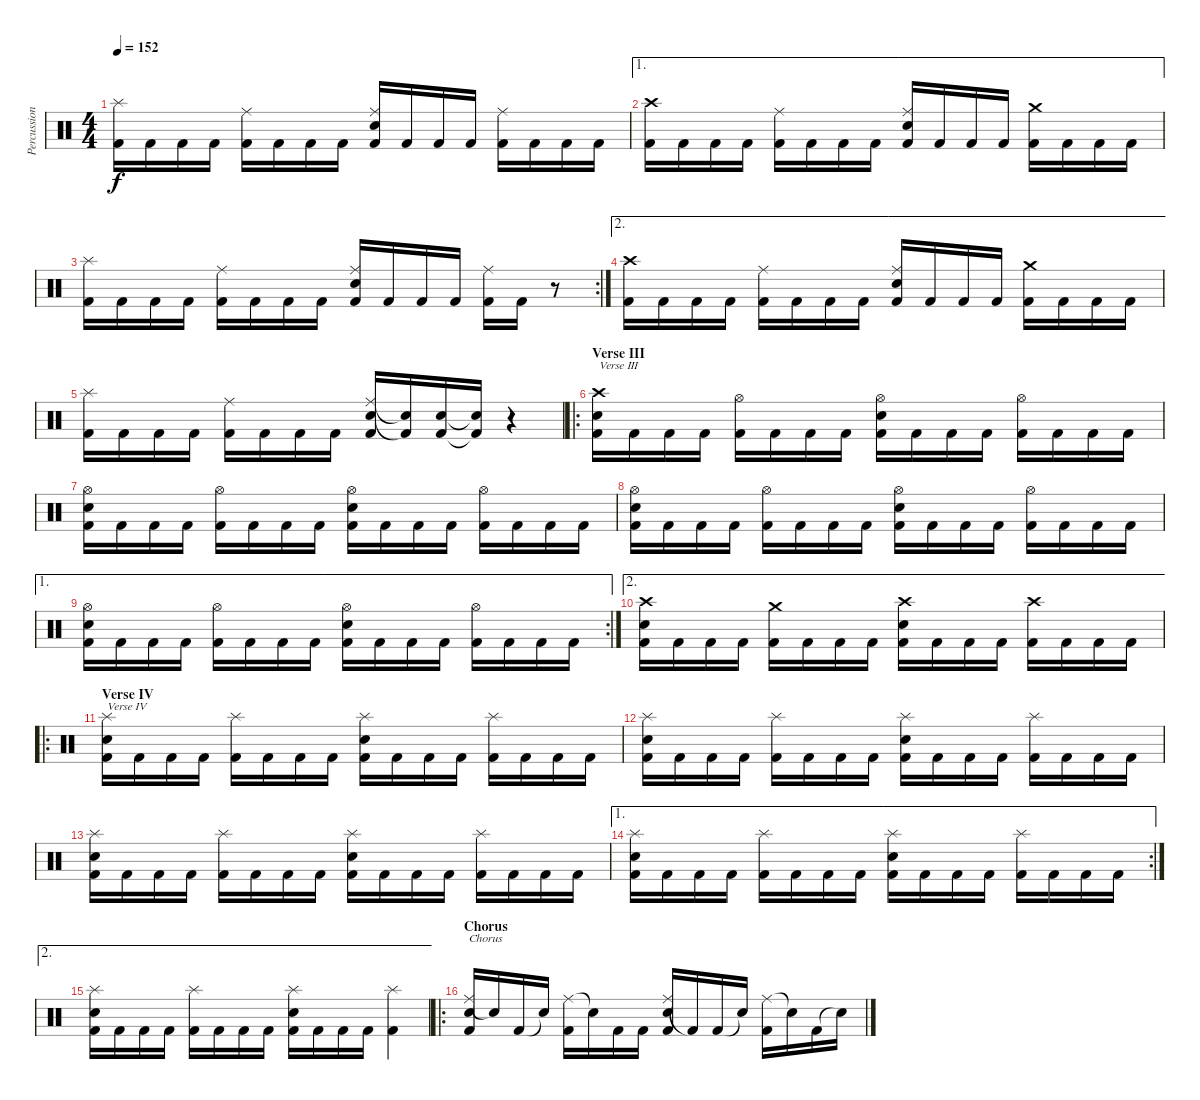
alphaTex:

\track ("Percussion" "Percussion") {instrument percussion}
\staff {score}
\articulation defaults
\ts (4 4)
\tempo 152
\clef neutral
\ks c
("Splash (hit)" "Kick (hit) 2").16{dy f} "Kick (hit) 2".16 "Kick (hit) 2".16 "Kick (hit) 2".16 ("Ride (middle)" "Kick (hit) 2").16 "Kick (hit) 2".16 "Kick (hit) 2".16 "Kick (hit) 2".16 ("Ride (middle)" "Electric Snare (hit)" "Kick (hit) 2").16 "Kick (hit) 2".16 "Kick (hit) 2".16 "Kick (hit) 2".16 ("Ride (middle)" "Kick (hit) 2").16 "Kick (hit) 2".16 "Kick (hit) 2".16 "Kick (hit) 2".16 |
\ae 1
("Crash high (hit)" "Kick (hit) 2").16 "Kick (hit) 2".16 "Kick (hit) 2".16 "Kick (hit) 2".16 ("Ride (middle)" "Kick (hit) 2").16 "Kick (hit) 2".16 "Kick (hit) 2".16 "Kick (hit) 2".16 ("Ride (middle)" "Electric Snare (hit)" "Kick (hit) 2").16 "Kick (hit) 2".16 "Kick (hit) 2".16 "Kick (hit) 2".16 ("Crash medium (hit)" "Kick (hit) 2").16 "Kick (hit) 2".16 "Kick (hit) 2".16 "Kick (hit) 2".16 |
\rc 2
("Splash (hit)" "Kick (hit) 2").16 "Kick (hit) 2".16 "Kick (hit) 2".16 "Kick (hit) 2".16 ("Ride (middle)" "Kick (hit) 2").16 "Kick (hit) 2".16 "Kick (hit) 2".16 "Kick (hit) 2".16 ("Ride (middle)" "Electric Snare (hit)" "Kick (hit) 2").16 "Kick (hit) 2".16 "Kick (hit) 2".16 "Kick (hit) 2".16 ("Ride (middle)" "Kick (hit) 2").16 "Kick (hit) 2".16 r.8 |
\ae 2
("Crash high (hit)" "Kick (hit) 2").16 "Kick (hit) 2".16 "Kick (hit) 2".16 "Kick (hit) 2".16 ("Ride (middle)" "Kick (hit) 2").16 "Kick (hit) 2".16 "Kick (hit) 2".16 "Kick (hit) 2".16 ("Ride (middle)" "Electric Snare (hit)" "Kick (hit) 2").16 "Kick (hit) 2".16 "Kick (hit) 2".16 "Kick (hit) 2".16 ("Crash medium (hit)" "Kick (hit) 2").16 "Kick (hit) 2".16 "Kick (hit) 2".16 "Kick (hit) 2".16 |
("Splash (hit)" "Kick (hit) 2").16 "Kick (hit) 2".16 "Kick (hit) 2".16 "Kick (hit) 2".16 ("Ride (middle)" "Kick (hit) 2").16 "Kick (hit) 2".16 "Kick (hit) 2".16 "Kick (hit) 2".16 ("Ride (middle)" "Electric Snare (hit)" "Kick (hit) 2").16 ("Electric Snare (hit)"{t} "Kick (hit) 2"{t}).16 ("Electric Snare (hit)" "Kick (hit) 2").16 ("Electric Snare (hit)"{t} "Kick (hit) 2"{t}).16 r.4 |
\ro
\section ("" "Verse III")
("Crash high (hit)" "Electric Snare (hit)" "Kick (hit) 2").16{txt "Verse III"} "Kick (hit) 2".16 "Kick (hit) 2".16 "Kick (hit) 2".16 ("Hi-Hat (open)" "Kick (hit) 2").16 "Kick (hit) 2".16 "Kick (hit) 2".16 "Kick (hit) 2".16 ("Hi-Hat (open)" "Electric Snare (hit)" "Kick (hit) 2").16 "Kick (hit) 2".16 "Kick (hit) 2".16 "Kick (hit) 2".16 ("Hi-Hat (open)" "Kick (hit) 2").16 "Kick (hit) 2".16 "Kick (hit) 2".16 "Kick (hit) 2".16 |
("Hi-Hat (open)" "Electric Snare (hit)" "Kick (hit) 2").16 "Kick (hit) 2".16 "Kick (hit) 2".16 "Kick (hit) 2".16 ("Hi-Hat (open)" "Kick (hit) 2").16 "Kick (hit) 2".16 "Kick (hit) 2".16 "Kick (hit) 2".16 ("Hi-Hat (open)" "Electric Snare (hit)" "Kick (hit) 2").16 "Kick (hit) 2".16 "Kick (hit) 2".16 "Kick (hit) 2".16 ("Hi-Hat (open)" "Kick (hit) 2").16 "Kick (hit) 2".16 "Kick (hit) 2".16 "Kick (hit) 2".16 |
("Hi-Hat (open)" "Electric Snare (hit)" "Kick (hit) 2").16 "Kick (hit) 2".16 "Kick (hit) 2".16 "Kick (hit) 2".16 ("Hi-Hat (open)" "Kick (hit) 2").16 "Kick (hit) 2".16 "Kick (hit) 2".16 "Kick (hit) 2".16 ("Hi-Hat (open)" "Electric Snare (hit)" "Kick (hit) 2").16 "Kick (hit) 2".16 "Kick (hit) 2".16 "Kick (hit) 2".16 ("Hi-Hat (open)" "Kick (hit) 2").16 "Kick (hit) 2".16 "Kick (hit) 2".16 "Kick (hit) 2".16 |
\ae 1
\rc 2
("Hi-Hat (open)" "Electric Snare (hit)" "Kick (hit) 2").16 "Kick (hit) 2".16 "Kick (hit) 2".16 "Kick (hit) 2".16 ("Hi-Hat (open)" "Kick (hit) 2").16 "Kick (hit) 2".16 "Kick (hit) 2".16 "Kick (hit) 2".16 ("Hi-Hat (open)" "Electric Snare (hit)" "Kick (hit) 2").16 "Kick (hit) 2".16 "Kick (hit) 2".16 "Kick (hit) 2".16 ("Hi-Hat (open)" "Kick (hit) 2").16 "Kick (hit) 2".16 "Kick (hit) 2".16 "Kick (hit) 2".16 |
\ae 2
("Crash high (hit)" "Electric Snare (hit)" "Kick (hit) 2").16 "Kick (hit) 2".16 "Kick (hit) 2".16 "Kick (hit) 2".16 ("Crash medium (hit)" "Kick (hit) 2").16 "Kick (hit) 2".16 "Kick (hit) 2".16 "Kick (hit) 2".16 ("Crash high (hit)" "Electric Snare (hit)" "Kick (hit) 2").16 "Kick (hit) 2".16 "Kick (hit) 2".16 "Kick (hit) 2".16 ("Crash high (hit)" "Kick (hit) 2").16 "Kick (hit) 2".16 "Kick (hit) 2".16 "Kick (hit) 2".16 |
\ro
\section ("" "Verse IV")
("Splash (hit)" "Electric Snare (hit)" "Kick (hit) 2").16{txt "Verse IV"} "Kick (hit) 2".16 "Kick (hit) 2".16 "Kick (hit) 2".16 ("Splash (hit)" "Kick (hit) 2").16 "Kick (hit) 2".16 "Kick (hit) 2".16 "Kick (hit) 2".16 ("Splash (hit)" "Electric Snare (hit)" "Kick (hit) 2").16 "Kick (hit) 2".16 "Kick (hit) 2".16 "Kick (hit) 2".16 ("Splash (hit)" "Kick (hit) 2").16 "Kick (hit) 2".16 "Kick (hit) 2".16 "Kick (hit) 2".16 |
("Splash (hit)" "Electric Snare (hit)" "Kick (hit) 2").16 "Kick (hit) 2".16 "Kick (hit) 2".16 "Kick (hit) 2".16 ("Splash (hit)" "Kick (hit) 2").16 "Kick (hit) 2".16 "Kick (hit) 2".16 "Kick (hit) 2".16 ("Splash (hit)" "Electric Snare (hit)" "Kick (hit) 2").16 "Kick (hit) 2".16 "Kick (hit) 2".16 "Kick (hit) 2".16 ("Splash (hit)" "Kick (hit) 2").16 "Kick (hit) 2".16 "Kick (hit) 2".16 "Kick (hit) 2".16 |
("Splash (hit)" "Electric Snare (hit)" "Kick (hit) 2").16 "Kick (hit) 2".16 "Kick (hit) 2".16 "Kick (hit) 2".16 ("Splash (hit)" "Kick (hit) 2").16 "Kick (hit) 2".16 "Kick (hit) 2".16 "Kick (hit) 2".16 ("Splash (hit)" "Electric Snare (hit)" "Kick (hit) 2").16 "Kick (hit) 2".16 "Kick (hit) 2".16 "Kick (hit) 2".16 ("Splash (hit)" "Kick (hit) 2").16 "Kick (hit) 2".16 "Kick (hit) 2".16 "Kick (hit) 2".16 |
\ae 1
\rc 2
("Splash (hit)" "Electric Snare (hit)" "Kick (hit) 2").16 "Kick (hit) 2".16 "Kick (hit) 2".16 "Kick (hit) 2".16 ("Splash (hit)" "Kick (hit) 2").16 "Kick (hit) 2".16 "Kick (hit) 2".16 "Kick (hit) 2".16 ("Splash (hit)" "Electric Snare (hit)" "Kick (hit) 2").16 "Kick (hit) 2".16 "Kick (hit) 2".16 "Kick (hit) 2".16 ("Splash (hit)" "Kick (hit) 2").16 "Kick (hit) 2".16 "Kick (hit) 2".16 "Kick (hit) 2".16 |
\ae 2
("Splash (hit)" "Electric Snare (hit)" "Kick (hit) 2").16 "Kick (hit) 2".16 "Kick (hit) 2".16 "Kick (hit) 2".16 ("Splash (hit)" "Kick (hit) 2").16 "Kick (hit) 2".16 "Kick (hit) 2".16 "Kick (hit) 2".16 ("Splash (hit)" "Electric Snare (hit)" "Kick (hit) 2").16 "Kick (hit) 2".16 "Kick (hit) 2".16 "Kick (hit) 2".16 ("Splash (hit)" "Kick (hit) 2").4 |
\ro
\section ("" "Chorus")
("Ride (middle)" "Electric Snare (hit)" "Kick (hit) 2").16{txt "Chorus"} "Snare (hit)"{t}.16 "Kick (hit) 2".16 "Snare (hit)"{t}.16 ("Ride (middle)" "Kick (hit) 2").16 "Snare (hit)"{t}.16 "Kick (hit) 2".16 "Kick (hit) 2".16 ("Ride (middle)" "Electric Snare (hit)" "Kick (hit) 2").16 "Kick (hit) 2"{t}.16 "Kick (hit) 2".16 "Snare (hit)"{t}.16 ("Ride (middle)" "Kick (hit) 2").16 "Snare (hit)"{t}.16 "Kick (hit) 2".16 "Snare (hit)"{t}.16
